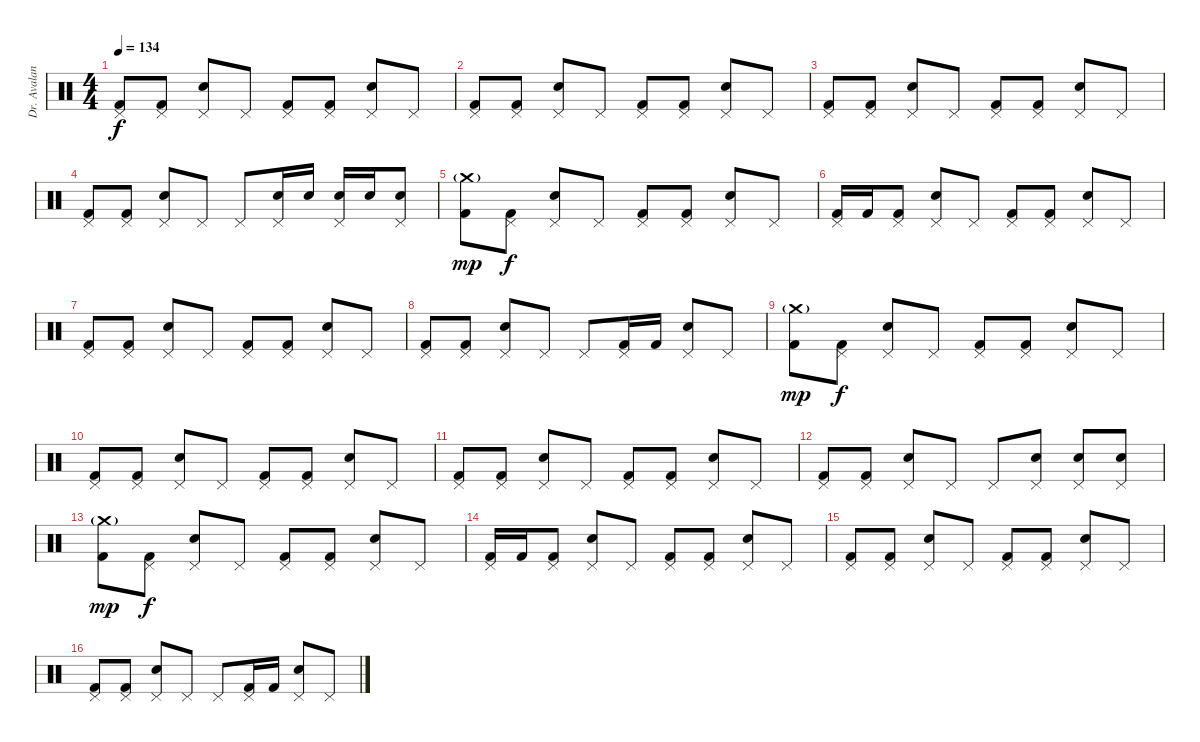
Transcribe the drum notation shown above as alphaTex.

\track ("Dr. Avalanche" "Dr. Avalan") {instrument percussion}
\staff {score}
\articulation defaults
\ts (4 4)
\tempo 134
\clef neutral
\ks c
("Pedal Hi-Hat (hit)" "Kick (hit) 2").8{dy f} ("Pedal Hi-Hat (hit)" "Kick (hit) 2").8 ("Pedal Hi-Hat (hit)" "Electric Snare (hit)").8 "Pedal Hi-Hat (hit)".8 ("Pedal Hi-Hat (hit)" "Kick (hit) 2").8 ("Pedal Hi-Hat (hit)" "Kick (hit) 2").8 ("Pedal Hi-Hat (hit)" "Electric Snare (hit)").8 "Pedal Hi-Hat (hit)".8 |
("Pedal Hi-Hat (hit)" "Kick (hit) 2").8 ("Pedal Hi-Hat (hit)" "Kick (hit) 2").8 ("Pedal Hi-Hat (hit)" "Electric Snare (hit)").8 "Pedal Hi-Hat (hit)".8 ("Pedal Hi-Hat (hit)" "Kick (hit) 2").8 ("Pedal Hi-Hat (hit)" "Kick (hit) 2").8 ("Pedal Hi-Hat (hit)" "Electric Snare (hit)").8 "Pedal Hi-Hat (hit)".8 |
("Pedal Hi-Hat (hit)" "Kick (hit) 2").8 ("Pedal Hi-Hat (hit)" "Kick (hit) 2").8 ("Pedal Hi-Hat (hit)" "Electric Snare (hit)").8 "Pedal Hi-Hat (hit)".8 ("Pedal Hi-Hat (hit)" "Kick (hit) 2").8 ("Pedal Hi-Hat (hit)" "Kick (hit) 2").8 ("Pedal Hi-Hat (hit)" "Electric Snare (hit)").8 "Pedal Hi-Hat (hit)".8 |
("Pedal Hi-Hat (hit)" "Kick (hit) 2").8 ("Pedal Hi-Hat (hit)" "Kick (hit) 2").8 ("Pedal Hi-Hat (hit)" "Electric Snare (hit)").8 "Pedal Hi-Hat (hit)".8 "Pedal Hi-Hat (hit)".8 ("Pedal Hi-Hat (hit)" "Electric Snare (hit)").16 "Electric Snare (hit)".16 ("Pedal Hi-Hat (hit)" "Electric Snare (hit)").16 "Electric Snare (hit)".16 ("Pedal Hi-Hat (hit)" "Electric Snare (hit)").8 |
("Crash medium (hit)"{g} "Kick (hit) 2").8{dy mp} ("Pedal Hi-Hat (hit)" "Kick (hit) 2").8{dy f} ("Pedal Hi-Hat (hit)" "Electric Snare (hit)").8 "Pedal Hi-Hat (hit)".8 ("Pedal Hi-Hat (hit)" "Kick (hit) 2").8 ("Pedal Hi-Hat (hit)" "Kick (hit) 2").8 ("Pedal Hi-Hat (hit)" "Electric Snare (hit)").8 "Pedal Hi-Hat (hit)".8 |
("Pedal Hi-Hat (hit)" "Kick (hit) 2").16 "Kick (hit) 2".16 ("Pedal Hi-Hat (hit)" "Kick (hit) 2").8 ("Pedal Hi-Hat (hit)" "Electric Snare (hit)").8 "Pedal Hi-Hat (hit)".8 ("Pedal Hi-Hat (hit)" "Kick (hit) 2").8 ("Pedal Hi-Hat (hit)" "Kick (hit) 2").8 ("Pedal Hi-Hat (hit)" "Electric Snare (hit)").8 "Pedal Hi-Hat (hit)".8 |
("Pedal Hi-Hat (hit)" "Kick (hit) 2").8 ("Pedal Hi-Hat (hit)" "Kick (hit) 2").8 ("Pedal Hi-Hat (hit)" "Electric Snare (hit)").8 "Pedal Hi-Hat (hit)".8 ("Pedal Hi-Hat (hit)" "Kick (hit) 2").8 ("Pedal Hi-Hat (hit)" "Kick (hit) 2").8 ("Pedal Hi-Hat (hit)" "Electric Snare (hit)").8 "Pedal Hi-Hat (hit)".8 |
("Pedal Hi-Hat (hit)" "Kick (hit) 2").8 ("Pedal Hi-Hat (hit)" "Kick (hit) 2").8 ("Pedal Hi-Hat (hit)" "Electric Snare (hit)").8 "Pedal Hi-Hat (hit)".8 "Pedal Hi-Hat (hit)".8 ("Pedal Hi-Hat (hit)" "Kick (hit) 2").16 "Kick (hit) 2".16 ("Pedal Hi-Hat (hit)" "Electric Snare (hit)").8 "Pedal Hi-Hat (hit)".8 |
("Crash medium (hit)"{g} "Kick (hit) 2").8{dy mp} ("Pedal Hi-Hat (hit)" "Kick (hit) 2").8{dy f} ("Pedal Hi-Hat (hit)" "Electric Snare (hit)").8 "Pedal Hi-Hat (hit)".8 ("Pedal Hi-Hat (hit)" "Kick (hit) 2").8 ("Pedal Hi-Hat (hit)" "Kick (hit) 2").8 ("Pedal Hi-Hat (hit)" "Electric Snare (hit)").8 "Pedal Hi-Hat (hit)".8 |
("Pedal Hi-Hat (hit)" "Kick (hit) 2").8 ("Pedal Hi-Hat (hit)" "Kick (hit) 2").8 ("Pedal Hi-Hat (hit)" "Electric Snare (hit)").8 "Pedal Hi-Hat (hit)".8 ("Pedal Hi-Hat (hit)" "Kick (hit) 2").8 ("Pedal Hi-Hat (hit)" "Kick (hit) 2").8 ("Pedal Hi-Hat (hit)" "Electric Snare (hit)").8 "Pedal Hi-Hat (hit)".8 |
("Pedal Hi-Hat (hit)" "Kick (hit) 2").8 ("Pedal Hi-Hat (hit)" "Kick (hit) 2").8 ("Pedal Hi-Hat (hit)" "Electric Snare (hit)").8 "Pedal Hi-Hat (hit)".8 ("Pedal Hi-Hat (hit)" "Kick (hit) 2").8 ("Pedal Hi-Hat (hit)" "Kick (hit) 2").8 ("Pedal Hi-Hat (hit)" "Electric Snare (hit)").8 "Pedal Hi-Hat (hit)".8 |
("Pedal Hi-Hat (hit)" "Kick (hit) 2").8 ("Pedal Hi-Hat (hit)" "Kick (hit) 2").8 ("Pedal Hi-Hat (hit)" "Electric Snare (hit)").8 "Pedal Hi-Hat (hit)".8 "Pedal Hi-Hat (hit)".8 ("Pedal Hi-Hat (hit)" "Electric Snare (hit)").8 ("Pedal Hi-Hat (hit)" "Electric Snare (hit)").8 ("Pedal Hi-Hat (hit)" "Electric Snare (hit)").8 |
("Crash medium (hit)"{g} "Kick (hit) 2").8{dy mp} ("Pedal Hi-Hat (hit)" "Kick (hit) 2").8{dy f} ("Pedal Hi-Hat (hit)" "Electric Snare (hit)").8 "Pedal Hi-Hat (hit)".8 ("Pedal Hi-Hat (hit)" "Kick (hit) 2").8 ("Pedal Hi-Hat (hit)" "Kick (hit) 2").8 ("Pedal Hi-Hat (hit)" "Electric Snare (hit)").8 "Pedal Hi-Hat (hit)".8 |
("Pedal Hi-Hat (hit)" "Kick (hit) 2").16 "Kick (hit) 2".16 ("Pedal Hi-Hat (hit)" "Kick (hit) 2").8 ("Pedal Hi-Hat (hit)" "Electric Snare (hit)").8 "Pedal Hi-Hat (hit)".8 ("Pedal Hi-Hat (hit)" "Kick (hit) 2").8 ("Pedal Hi-Hat (hit)" "Kick (hit) 2").8 ("Pedal Hi-Hat (hit)" "Electric Snare (hit)").8 "Pedal Hi-Hat (hit)".8 |
("Pedal Hi-Hat (hit)" "Kick (hit) 2").8 ("Pedal Hi-Hat (hit)" "Kick (hit) 2").8 ("Pedal Hi-Hat (hit)" "Electric Snare (hit)").8 "Pedal Hi-Hat (hit)".8 ("Pedal Hi-Hat (hit)" "Kick (hit) 2").8 ("Pedal Hi-Hat (hit)" "Kick (hit) 2").8 ("Pedal Hi-Hat (hit)" "Electric Snare (hit)").8 "Pedal Hi-Hat (hit)".8 |
("Pedal Hi-Hat (hit)" "Kick (hit) 2").8 ("Pedal Hi-Hat (hit)" "Kick (hit) 2").8 ("Pedal Hi-Hat (hit)" "Electric Snare (hit)").8 "Pedal Hi-Hat (hit)".8 "Pedal Hi-Hat (hit)".8 ("Pedal Hi-Hat (hit)" "Kick (hit) 2").16 "Kick (hit) 2".16 ("Pedal Hi-Hat (hit)" "Electric Snare (hit)").8 "Pedal Hi-Hat (hit)".8
